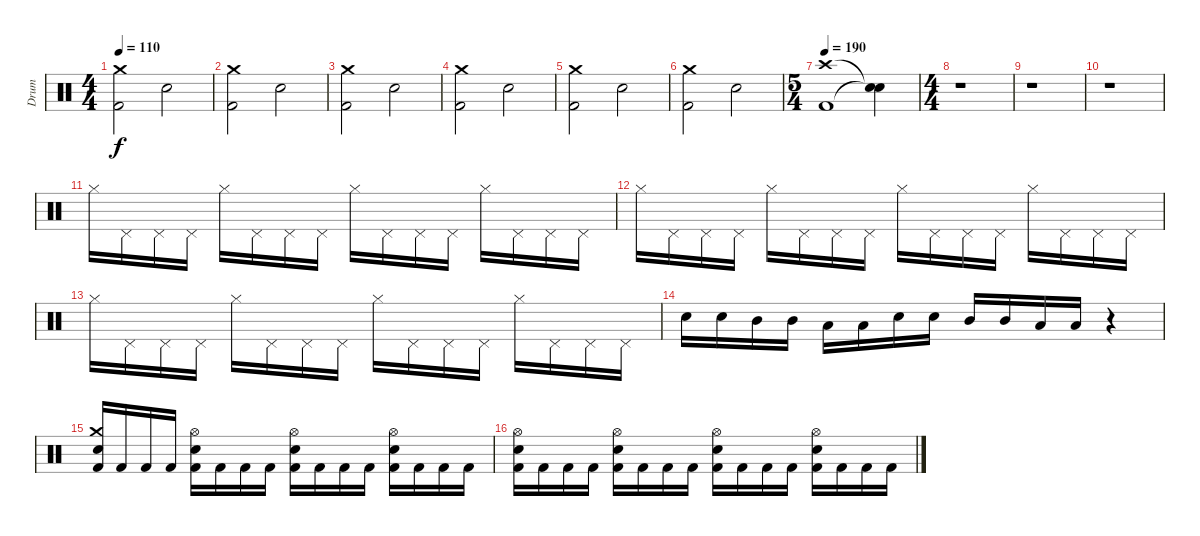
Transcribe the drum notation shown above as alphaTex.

\track ("Drum" "Drum") {instrument percussion}
\staff {score}
\articulation defaults
\ts (4 4)
\tempo 110
\clef neutral
\ks c
("Kick (hit) 2" "Crash medium (hit)").2{dy f} "Snare (hit) 2".2 |
("Kick (hit) 2" "Crash medium (hit)").2 "Snare (hit) 2".2 |
("Kick (hit) 2" "Crash medium (hit)").2 "Snare (hit) 2".2 |
("Kick (hit) 2" "Crash medium (hit)").2 "Snare (hit) 2".2 |
("Kick (hit) 2" "Crash medium (hit)").2 "Snare (hit) 2".2 |
("Kick (hit) 2" "Crash medium (hit)").2 "Snare (hit) 2".2 |
\ts (5 4)
\tempo 190
("Kick (hit) 2" "Crash high (hit)").1 ("Snare (hit)"{t} "Snare (hit)"{t}).4 |
\ts (4 4)
r.1 |
r.1 |
r.1 |
"Hi-Hat (closed)".16 "Pedal Hi-Hat (hit)".16 "Pedal Hi-Hat (hit)".16 "Pedal Hi-Hat (hit)".16 "Hi-Hat (closed)".16 "Pedal Hi-Hat (hit)".16 "Pedal Hi-Hat (hit)".16 "Pedal Hi-Hat (hit)".16 "Hi-Hat (closed)".16 "Pedal Hi-Hat (hit)".16 "Pedal Hi-Hat (hit)".16 "Pedal Hi-Hat (hit)".16 "Hi-Hat (closed)".16 "Pedal Hi-Hat (hit)".16 "Pedal Hi-Hat (hit)".16 "Pedal Hi-Hat (hit)".16 |
"Hi-Hat (closed)".16 "Pedal Hi-Hat (hit)".16 "Pedal Hi-Hat (hit)".16 "Pedal Hi-Hat (hit)".16 "Hi-Hat (closed)".16 "Pedal Hi-Hat (hit)".16 "Pedal Hi-Hat (hit)".16 "Pedal Hi-Hat (hit)".16 "Hi-Hat (closed)".16 "Pedal Hi-Hat (hit)".16 "Pedal Hi-Hat (hit)".16 "Pedal Hi-Hat (hit)".16 "Hi-Hat (closed)".16 "Pedal Hi-Hat (hit)".16 "Pedal Hi-Hat (hit)".16 "Pedal Hi-Hat (hit)".16 |
"Hi-Hat (closed)".16 "Pedal Hi-Hat (hit)".16 "Pedal Hi-Hat (hit)".16 "Pedal Hi-Hat (hit)".16 "Hi-Hat (closed)".16 "Pedal Hi-Hat (hit)".16 "Pedal Hi-Hat (hit)".16 "Pedal Hi-Hat (hit)".16 "Hi-Hat (closed)".16 "Pedal Hi-Hat (hit)".16 "Pedal Hi-Hat (hit)".16 "Pedal Hi-Hat (hit)".16 "Hi-Hat (closed)".16 "Pedal Hi-Hat (hit)".16 "Pedal Hi-Hat (hit)".16 "Pedal Hi-Hat (hit)".16 |
"Snare (hit) 2".16 "Snare (hit) 2".16 "Mid Tom (hit)".16 "Mid Tom (hit)".16 "Low Tom (hit)".16 "Low Tom (hit)".16 "Snare (hit) 2".16 "Snare (hit) 2".16 "Mid Tom (hit)".16 "Mid Tom (hit)".16 "Low Tom (hit)".16 "Low Tom (hit)".16 r.4 |
("Kick (hit) 2" "Snare (hit) 2" "Crash medium (hit)").16 "Kick (hit) 2".16 "Kick (hit) 2".16 "Kick (hit) 2".16 ("Kick (hit) 2" "Snare (hit) 2" "Hi-Hat (open)").16 "Kick (hit) 2".16 "Kick (hit) 2".16 "Kick (hit) 2".16 ("Kick (hit) 2" "Snare (hit) 2" "Hi-Hat (open)").16 "Kick (hit) 2".16 "Kick (hit) 2".16 "Kick (hit) 2".16 ("Kick (hit) 2" "Snare (hit) 2" "Hi-Hat (open)").16 "Kick (hit) 2".16 "Kick (hit) 2".16 "Kick (hit) 2".16 |
("Kick (hit) 2" "Snare (hit) 2" "Hi-Hat (open)").16 "Kick (hit) 2".16 "Kick (hit) 2".16 "Kick (hit) 2".16 ("Kick (hit) 2" "Snare (hit) 2" "Hi-Hat (open)").16 "Kick (hit) 2".16 "Kick (hit) 2".16 "Kick (hit) 2".16 ("Kick (hit) 2" "Snare (hit) 2" "Hi-Hat (open)").16 "Kick (hit) 2".16 "Kick (hit) 2".16 "Kick (hit) 2".16 ("Kick (hit) 2" "Snare (hit) 2" "Hi-Hat (open)").16 "Kick (hit) 2".16 "Kick (hit) 2".16 "Kick (hit) 2".16
